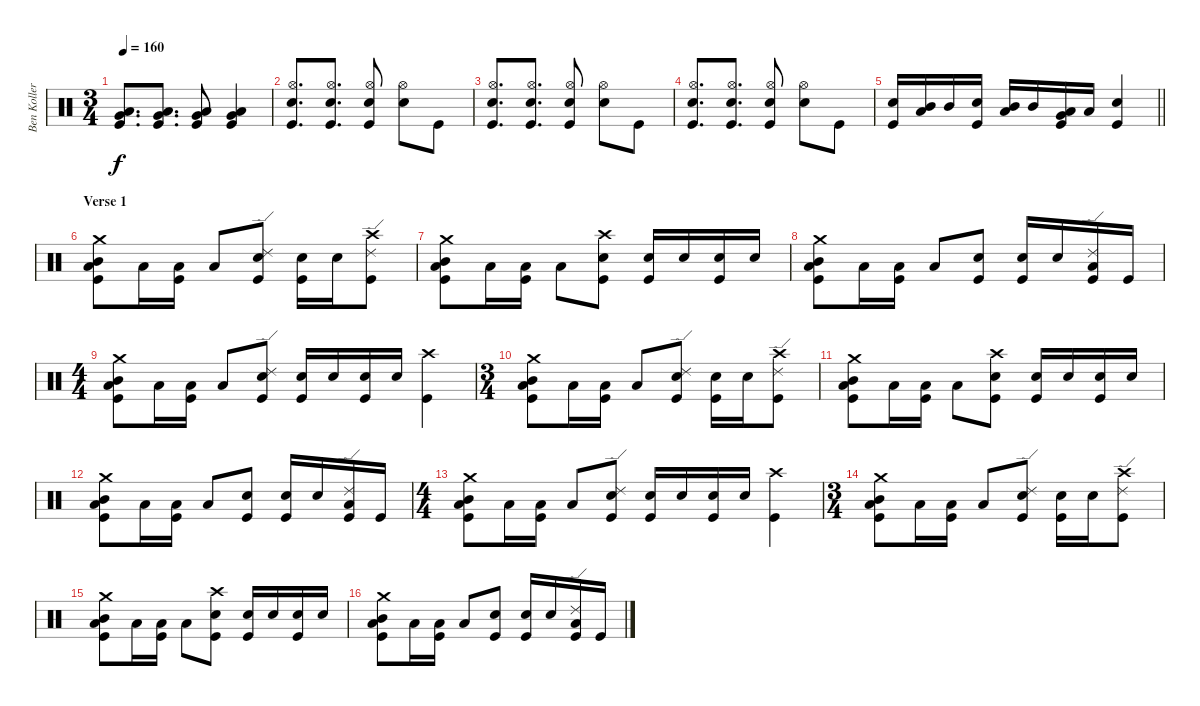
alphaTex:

\track ("Ben Koller" "Ben Koller") {instrument percussion}
\staff {score}
\articulation defaults
\ts (3 4)
\tempo 160
\clef neutral
\ks c
("Low Tom (hit)" "Very Low Tom (hit)" "Kick (hit)").8{d dy f} ("Low Tom (hit)" "Very Low Tom (hit)" "Kick (hit)").8{d} ("Low Tom (hit)" "Very Low Tom (hit)" "Kick (hit)").8 ("Low Tom (hit)" "Very Low Tom (hit)" "Kick (hit)").4 |
("Hi-Hat (open)" "Electric Snare (hit)" "Kick (hit)").8{d} ("Hi-Hat (open)" "Electric Snare (hit)" "Kick (hit)").8{d} ("Hi-Hat (open)" "Electric Snare (hit)" "Kick (hit)").8 ("Hi-Hat (open)" "Electric Snare (hit)").8 "Kick (hit)".8 |
("Hi-Hat (open)" "Electric Snare (hit)" "Kick (hit)").8{d} ("Hi-Hat (open)" "Electric Snare (hit)" "Kick (hit)").8{d} ("Hi-Hat (open)" "Electric Snare (hit)" "Kick (hit)").8 ("Hi-Hat (open)" "Electric Snare (hit)").8 "Kick (hit)".8 |
("Hi-Hat (open)" "Electric Snare (hit)" "Kick (hit)").8{d} ("Hi-Hat (open)" "Electric Snare (hit)" "Kick (hit)").8{d} ("Hi-Hat (open)" "Electric Snare (hit)" "Kick (hit)").8 ("Hi-Hat (open)" "Electric Snare (hit)").8 "Kick (hit)".8 |
\barLineRight lightlight
("Electric Snare (hit)" "Kick (hit)").16 ("Mid Tom (hit)" "Low Tom (hit)").16 "Mid Tom (hit)".16 ("Electric Snare (hit)" "Kick (hit)").16 ("Mid Tom (hit)" "Low Tom (hit)").16 "Mid Tom (hit)".16 ("Low Tom (hit)" "Very Low Tom (hit)" "Kick (hit)").16 "Low Tom (hit)".16 ("Electric Snare (hit)" "Kick (hit)").4 |
\section ("" "Verse 1")
("Crash medium (hit)" "Mid Tom (hit)" "Low Tom (hit)" "Kick (hit)").8 "Low Tom (hit)".16 ("Low Tom (hit)" "Kick (hit)").16 "Low Tom (hit)".8 ("Ride (edge) 2" "Electric Snare (hit)" "Kick (hit)").8 ("Electric Snare (hit)" "Kick (hit)").16 "Electric Snare (hit)".16 ("Crash high (hit)" "Ride (edge) 2" "Kick (hit)").8 |
("Crash medium (hit)" "Mid Tom (hit)" "Low Tom (hit)" "Kick (hit)").8 "Low Tom (hit)".16 ("Low Tom (hit)" "Kick (hit)").16 "Low Tom (hit)".8 ("Crash high (hit)" "Electric Snare (hit)" "Kick (hit)").8 ("Electric Snare (hit)" "Kick (hit)").16 "Electric Snare (hit)".16 ("Electric Snare (hit)" "Kick (hit)").16 "Electric Snare (hit)".16 |
("Crash medium (hit)" "Mid Tom (hit)" "Low Tom (hit)" "Kick (hit)").8 "Low Tom (hit)".16 ("Low Tom (hit)" "Kick (hit)").16 "Low Tom (hit)".8 ("Electric Snare (hit)" "Kick (hit)").8 ("Electric Snare (hit)" "Kick (hit)").16 "Electric Snare (hit)".16 ("Ride (edge) 2" "Low Tom (hit)" "Kick (hit)").16 "Kick (hit)".16 |
\ts (4 4)
("Crash medium (hit)" "Mid Tom (hit)" "Low Tom (hit)" "Kick (hit)").8 "Low Tom (hit)".16 ("Low Tom (hit)" "Kick (hit)").16 "Low Tom (hit)".8 ("Ride (edge) 2" "Electric Snare (hit)" "Kick (hit)").8 ("Electric Snare (hit)" "Kick (hit)").16 "Electric Snare (hit)".16 ("Electric Snare (hit)" "Kick (hit)").16 "Electric Snare (hit)".16 ("Crash high (hit)" "Kick (hit)").4 |
\ts (3 4)
("Crash medium (hit)" "Mid Tom (hit)" "Low Tom (hit)" "Kick (hit)").8 "Low Tom (hit)".16 ("Low Tom (hit)" "Kick (hit)").16 "Low Tom (hit)".8 ("Ride (edge) 2" "Electric Snare (hit)" "Kick (hit)").8 ("Electric Snare (hit)" "Kick (hit)").16 "Electric Snare (hit)".16 ("Crash high (hit)" "Ride (edge) 2" "Kick (hit)").8 |
("Crash medium (hit)" "Mid Tom (hit)" "Low Tom (hit)" "Kick (hit)").8 "Low Tom (hit)".16 ("Low Tom (hit)" "Kick (hit)").16 "Low Tom (hit)".8 ("Crash high (hit)" "Electric Snare (hit)" "Kick (hit)").8 ("Electric Snare (hit)" "Kick (hit)").16 "Electric Snare (hit)".16 ("Electric Snare (hit)" "Kick (hit)").16 "Electric Snare (hit)".16 |
("Crash medium (hit)" "Mid Tom (hit)" "Low Tom (hit)" "Kick (hit)").8 "Low Tom (hit)".16 ("Low Tom (hit)" "Kick (hit)").16 "Low Tom (hit)".8 ("Electric Snare (hit)" "Kick (hit)").8 ("Electric Snare (hit)" "Kick (hit)").16 "Electric Snare (hit)".16 ("Ride (edge) 2" "Low Tom (hit)" "Kick (hit)").16 "Kick (hit)".16 |
\ts (4 4)
("Crash medium (hit)" "Mid Tom (hit)" "Low Tom (hit)" "Kick (hit)").8 "Low Tom (hit)".16 ("Low Tom (hit)" "Kick (hit)").16 "Low Tom (hit)".8 ("Ride (edge) 2" "Electric Snare (hit)" "Kick (hit)").8 ("Electric Snare (hit)" "Kick (hit)").16 "Electric Snare (hit)".16 ("Electric Snare (hit)" "Kick (hit)").16 "Electric Snare (hit)".16 ("Crash high (hit)" "Kick (hit)").4 |
\ts (3 4)
("Crash medium (hit)" "Mid Tom (hit)" "Low Tom (hit)" "Kick (hit)").8 "Low Tom (hit)".16 ("Low Tom (hit)" "Kick (hit)").16 "Low Tom (hit)".8 ("Ride (edge) 2" "Electric Snare (hit)" "Kick (hit)").8 ("Electric Snare (hit)" "Kick (hit)").16 "Electric Snare (hit)".16 ("Crash high (hit)" "Ride (edge) 2" "Kick (hit)").8 |
("Crash medium (hit)" "Mid Tom (hit)" "Low Tom (hit)" "Kick (hit)").8 "Low Tom (hit)".16 ("Low Tom (hit)" "Kick (hit)").16 "Low Tom (hit)".8 ("Crash high (hit)" "Electric Snare (hit)" "Kick (hit)").8 ("Electric Snare (hit)" "Kick (hit)").16 "Electric Snare (hit)".16 ("Electric Snare (hit)" "Kick (hit)").16 "Electric Snare (hit)".16 |
("Crash medium (hit)" "Mid Tom (hit)" "Low Tom (hit)" "Kick (hit)").8 "Low Tom (hit)".16 ("Low Tom (hit)" "Kick (hit)").16 "Low Tom (hit)".8 ("Electric Snare (hit)" "Kick (hit)").8 ("Electric Snare (hit)" "Kick (hit)").16 "Electric Snare (hit)".16 ("Ride (edge) 2" "Low Tom (hit)" "Kick (hit)").16 "Kick (hit)".16
